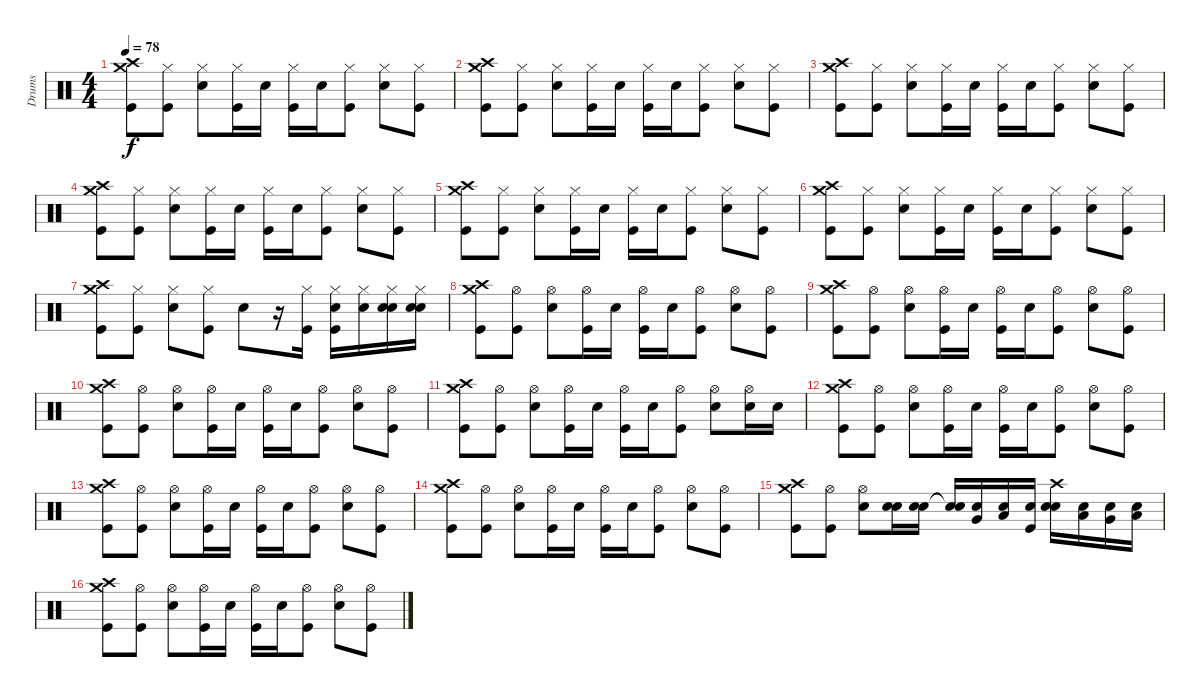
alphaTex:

\track ("Drums" "Drums") {instrument percussion}
\staff {score}
\articulation defaults
\ts (4 4)
\tempo 78
\clef neutral
\ks c
("Crash high (hit)" "Crash medium (hit)" "Kick (hit)").8{dy f} ("Hi-Hat (closed)" "Kick (hit)").8 ("Electric Snare (hit)" "Hi-Hat (closed)").8 ("Hi-Hat (closed)" "Kick (hit)").16 "Electric Snare (hit)".16 ("Hi-Hat (closed)" "Kick (hit)").16 "Electric Snare (hit)".16 ("Hi-Hat (closed)" "Kick (hit)").8 ("Electric Snare (hit)" "Hi-Hat (closed)").8 ("Hi-Hat (closed)" "Kick (hit)").8 |
("Crash high (hit)" "Crash medium (hit)" "Kick (hit)").8 ("Hi-Hat (closed)" "Kick (hit)").8 ("Electric Snare (hit)" "Hi-Hat (closed)").8 ("Hi-Hat (closed)" "Kick (hit)").16 "Electric Snare (hit)".16 ("Hi-Hat (closed)" "Kick (hit)").16 "Electric Snare (hit)".16 ("Hi-Hat (closed)" "Kick (hit)").8 ("Electric Snare (hit)" "Hi-Hat (closed)").8 ("Hi-Hat (closed)" "Kick (hit)").8 |
("Crash high (hit)" "Crash medium (hit)" "Kick (hit)").8 ("Hi-Hat (closed)" "Kick (hit)").8 ("Electric Snare (hit)" "Hi-Hat (closed)").8 ("Hi-Hat (closed)" "Kick (hit)").16 "Electric Snare (hit)".16 ("Hi-Hat (closed)" "Kick (hit)").16 "Electric Snare (hit)".16 ("Hi-Hat (closed)" "Kick (hit)").8 ("Electric Snare (hit)" "Hi-Hat (closed)").8 ("Hi-Hat (closed)" "Kick (hit)").8 |
("Crash high (hit)" "Crash medium (hit)" "Kick (hit)").8 ("Hi-Hat (closed)" "Kick (hit)").8 ("Electric Snare (hit)" "Hi-Hat (closed)").8 ("Hi-Hat (closed)" "Kick (hit)").16 "Electric Snare (hit)".16 ("Hi-Hat (closed)" "Kick (hit)").16 "Electric Snare (hit)".16 ("Hi-Hat (closed)" "Kick (hit)").8 ("Electric Snare (hit)" "Hi-Hat (closed)").8 ("Hi-Hat (closed)" "Kick (hit)").8 |
("Crash high (hit)" "Crash medium (hit)" "Kick (hit)").8 ("Hi-Hat (closed)" "Kick (hit)").8 ("Electric Snare (hit)" "Hi-Hat (closed)").8 ("Hi-Hat (closed)" "Kick (hit)").16 "Electric Snare (hit)".16 ("Hi-Hat (closed)" "Kick (hit)").16 "Electric Snare (hit)".16 ("Hi-Hat (closed)" "Kick (hit)").8 ("Electric Snare (hit)" "Hi-Hat (closed)").8 ("Hi-Hat (closed)" "Kick (hit)").8 |
("Crash high (hit)" "Crash medium (hit)" "Kick (hit)").8 ("Hi-Hat (closed)" "Kick (hit)").8 ("Electric Snare (hit)" "Hi-Hat (closed)").8 ("Hi-Hat (closed)" "Kick (hit)").16 "Electric Snare (hit)".16 ("Hi-Hat (closed)" "Kick (hit)").16 "Electric Snare (hit)".16 ("Hi-Hat (closed)" "Kick (hit)").8 ("Electric Snare (hit)" "Hi-Hat (closed)").8 ("Hi-Hat (closed)" "Kick (hit)").8 |
("Crash high (hit)" "Crash medium (hit)" "Kick (hit)").8 ("Hi-Hat (closed)" "Kick (hit)").8 ("Electric Snare (hit)" "Hi-Hat (closed)").8 ("Hi-Hat (closed)" "Kick (hit)").8 "Electric Snare (hit)".8 r.16 ("Hi-Hat (closed)" "Kick (hit)").16 ("Snare (hit) 2" "Hi-Hat (closed)" "Kick (hit)").16 ("Snare (hit) 2" "Hi-Hat (closed)").16 ("Snare (hit) 2" "Electric Snare (hit)" "Hi-Hat (closed)").16 ("Snare (hit) 2" "Electric Snare (hit)" "Hi-Hat (closed)").16 |
("Crash high (hit)" "Crash medium (hit)" "Kick (hit)").8 ("Hi-Hat (open)" "Kick (hit)").8 ("Electric Snare (hit)" "Hi-Hat (open)").8 ("Hi-Hat (open)" "Kick (hit)").16 "Electric Snare (hit)".16 ("Hi-Hat (open)" "Kick (hit)").16 "Electric Snare (hit)".16 ("Hi-Hat (open)" "Kick (hit)").8 ("Electric Snare (hit)" "Hi-Hat (open)").8 ("Hi-Hat (open)" "Kick (hit)").8 |
("Crash high (hit)" "Crash medium (hit)" "Kick (hit)").8 ("Hi-Hat (open)" "Kick (hit)").8 ("Electric Snare (hit)" "Hi-Hat (open)").8 ("Hi-Hat (open)" "Kick (hit)").16 "Electric Snare (hit)".16 ("Hi-Hat (open)" "Kick (hit)").16 "Electric Snare (hit)".16 ("Hi-Hat (open)" "Kick (hit)").8 ("Electric Snare (hit)" "Hi-Hat (open)").8 ("Hi-Hat (open)" "Kick (hit)").8 |
("Crash high (hit)" "Crash medium (hit)" "Kick (hit)").8 ("Hi-Hat (open)" "Kick (hit)").8 ("Electric Snare (hit)" "Hi-Hat (open)").8 ("Hi-Hat (open)" "Kick (hit)").16 "Electric Snare (hit)".16 ("Hi-Hat (open)" "Kick (hit)").16 "Electric Snare (hit)".16 ("Hi-Hat (open)" "Kick (hit)").8 ("Electric Snare (hit)" "Hi-Hat (open)").8 ("Hi-Hat (open)" "Kick (hit)").8 |
("Crash high (hit)" "Crash medium (hit)" "Kick (hit)").8 ("Hi-Hat (open)" "Kick (hit)").8 ("Electric Snare (hit)" "Hi-Hat (open)").8 ("Hi-Hat (open)" "Kick (hit)").16 "Electric Snare (hit)".16 ("Hi-Hat (open)" "Kick (hit)").16 "Electric Snare (hit)".16 ("Hi-Hat (open)" "Kick (hit)").8 ("Electric Snare (hit)" "Hi-Hat (open)").8 ("Electric Snare (hit)" "Hi-Hat (open)").16 "Electric Snare (hit)".16 |
("Crash high (hit)" "Crash medium (hit)" "Kick (hit)").8 ("Hi-Hat (open)" "Kick (hit)").8 ("Electric Snare (hit)" "Hi-Hat (open)").8 ("Hi-Hat (open)" "Kick (hit)").16 "Electric Snare (hit)".16 ("Hi-Hat (open)" "Kick (hit)").16 "Electric Snare (hit)".16 ("Hi-Hat (open)" "Kick (hit)").8 ("Electric Snare (hit)" "Hi-Hat (open)").8 ("Hi-Hat (open)" "Kick (hit)").8 |
("Crash high (hit)" "Crash medium (hit)" "Kick (hit)").8 ("Hi-Hat (open)" "Kick (hit)").8 ("Electric Snare (hit)" "Hi-Hat (open)").8 ("Hi-Hat (open)" "Kick (hit)").16 "Electric Snare (hit)".16 ("Hi-Hat (open)" "Kick (hit)").16 "Electric Snare (hit)".16 ("Hi-Hat (open)" "Kick (hit)").8 ("Electric Snare (hit)" "Hi-Hat (open)").8 ("Hi-Hat (open)" "Kick (hit)").8 |
("Crash high (hit)" "Crash medium (hit)" "Kick (hit)").8 ("Hi-Hat (open)" "Kick (hit)").8 ("Electric Snare (hit)" "Hi-Hat (open)").8 ("Hi-Hat (open)" "Kick (hit)").16 "Electric Snare (hit)".16 ("Hi-Hat (open)" "Kick (hit)").16 "Electric Snare (hit)".16 ("Hi-Hat (open)" "Kick (hit)").8 ("Electric Snare (hit)" "Hi-Hat (open)").8 ("Hi-Hat (open)" "Kick (hit)").8 |
("Crash high (hit)" "Crash medium (hit)" "Kick (hit)").8 ("Hi-Hat (open)" "Kick (hit)").8 ("Electric Snare (hit)" "Hi-Hat (open)").8 ("Electric Snare (hit)" "Snare (hit) 2").16 ("Electric Snare (hit)" "Snare (hit) 2").16 ("Snare (hit)"{t} "Snare (hit)"{t}).16 ("Very Low Tom (hit)" "Snare (hit) 2").16 ("Low Floor Tom (hit)" "Snare (hit) 2").16 ("Snare (hit) 2" "Kick (hit)").16 ("Crash high (hit)" "Electric Snare (hit)" "Snare (hit) 2").16 ("Low Tom (hit)" "Snare (hit) 2").16 ("Very Low Tom (hit)" "Snare (hit) 2").16 ("Low Floor Tom (hit)" "Snare (hit) 2").16 |
("Crash high (hit)" "Crash medium (hit)" "Kick (hit)").8 ("Hi-Hat (open)" "Kick (hit)").8 ("Electric Snare (hit)" "Hi-Hat (open)").8 ("Hi-Hat (open)" "Kick (hit)").16 "Electric Snare (hit)".16 ("Hi-Hat (open)" "Kick (hit)").16 "Electric Snare (hit)".16 ("Hi-Hat (open)" "Kick (hit)").8 ("Electric Snare (hit)" "Hi-Hat (open)").8 ("Hi-Hat (open)" "Kick (hit)").8
